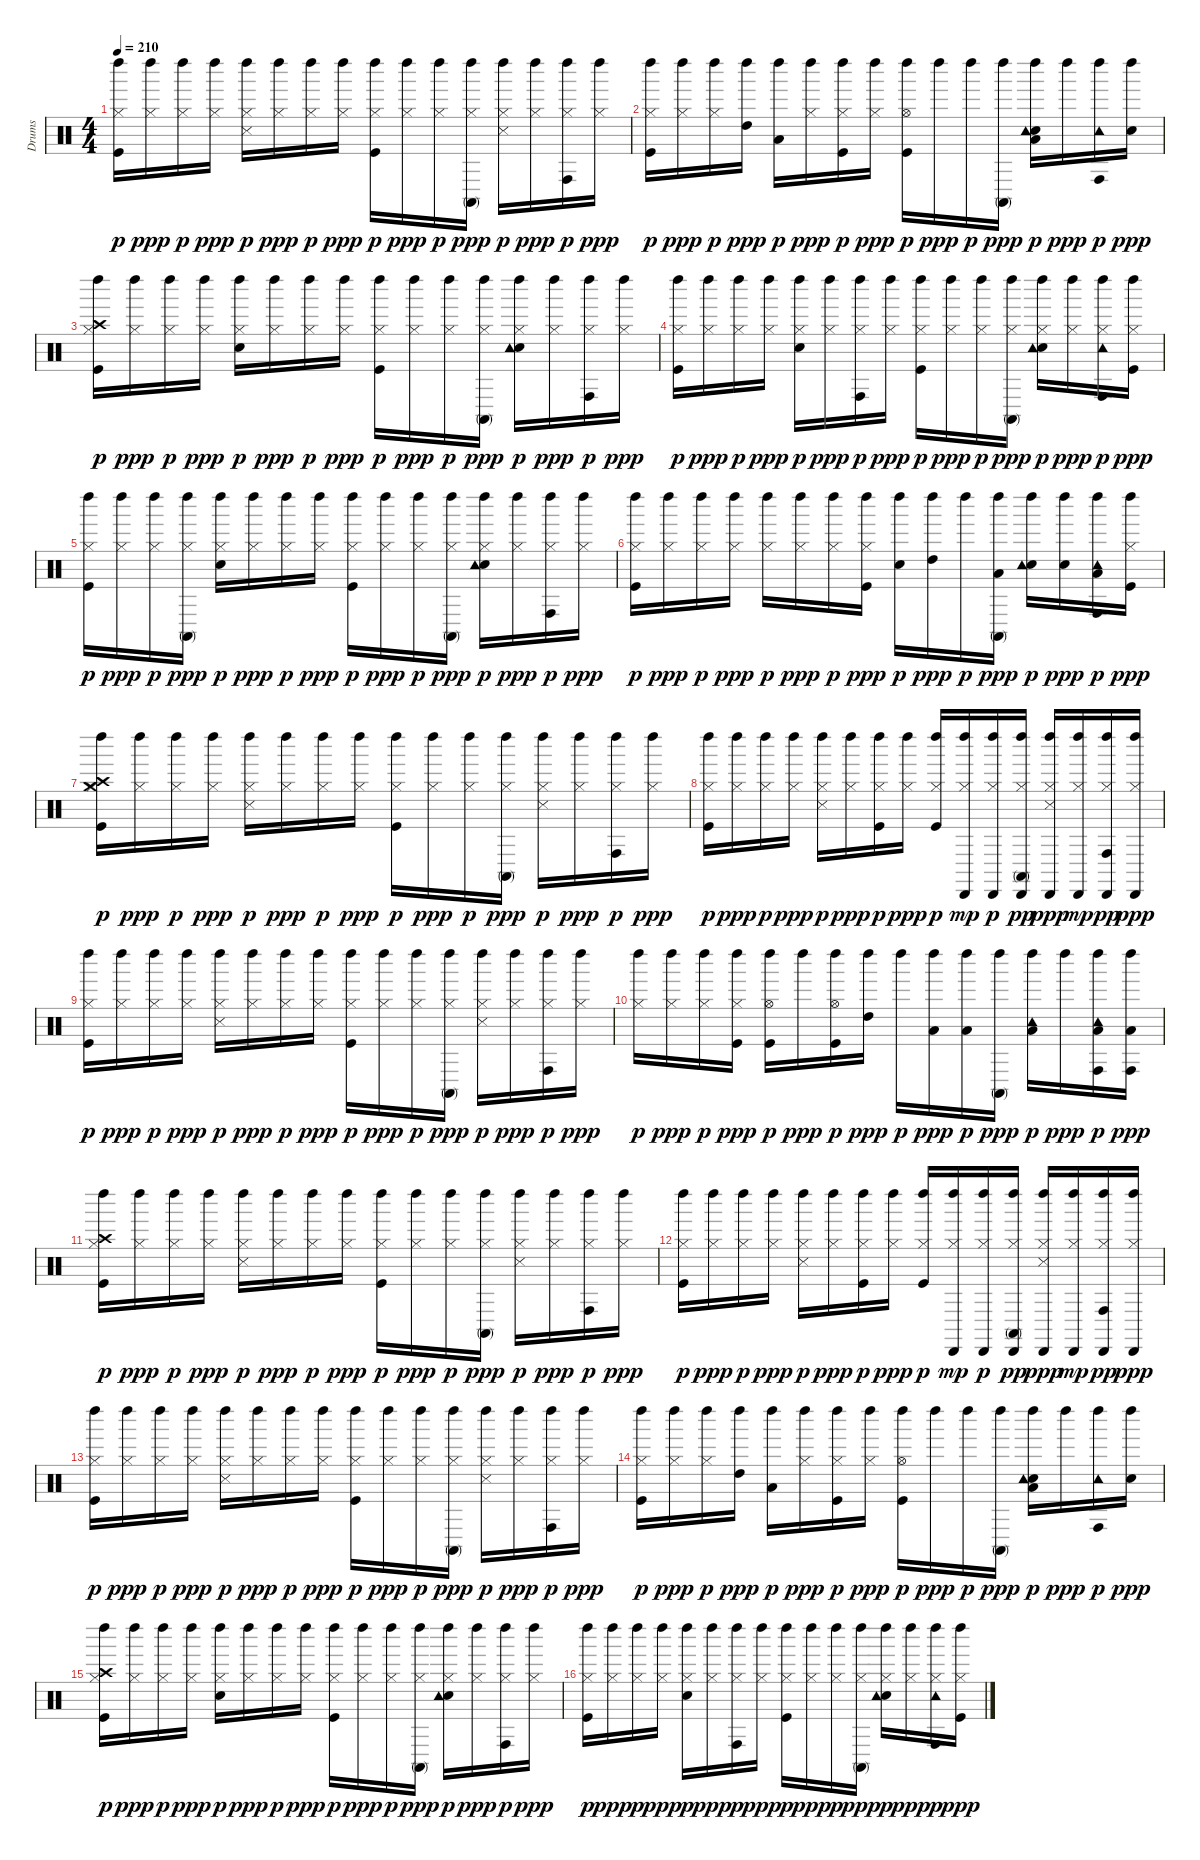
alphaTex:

\track ("Drums" "Drums") {instrument percussion}
\staff {score}
\articulation defaults
\ts (4 4)
\tempo 210
\clef neutral
\ks c
("Kick (hit)" "Hi-Hat (closed)" "Left Maraca (hit)").16{dy p} ("Hi-Hat (closed)" "Left Maraca (hit)").16{dy ppp} ("Hi-Hat (closed)" "Left Maraca (hit)").16{dy p} ("Hi-Hat (closed)" "Left Maraca (hit)").16{dy ppp} ("Hi-Hat (closed)" "Snare (side stick) 3" "Left Maraca (hit)").16{dy p} ("Hi-Hat (closed)" "Left Maraca (hit)").16{dy ppp} ("Hi-Hat (closed)" "Left Maraca (hit)").16{dy p} ("Hi-Hat (closed)" "Left Maraca (hit)").16{dy ppp} ("Kick (hit)" "Hi-Hat (closed)" "Left Maraca (hit)").16{dy p} ("Hi-Hat (closed)" "Left Maraca (hit)").16{dy ppp} ("Hi-Hat (closed)" "Left Maraca (hit)").16{dy p} ("Hi-Hat (closed)" "Conga high (mute)" "Left Maraca (hit)").16{dy ppp} ("Hi-Hat (closed)" "Snare (side stick) 3" "Left Maraca (hit)").16{dy p} ("Hi-Hat (closed)" "Left Maraca (hit)").16{dy ppp} ("Hi-Hat (closed)" "Conga high (hit)" "Left Maraca (hit)").16{dy p} ("Hi-Hat (closed)" "Left Maraca (hit)").16{dy ppp} |
("Kick (hit)" "Hi-Hat (closed)" "Left Maraca (hit)").16{dy p} ("Hi-Hat (closed)" "Left Maraca (hit)").16{dy ppp} ("Hi-Hat (closed)" "Left Maraca (hit)").16{dy p} ("High Tom (hit)" "Left Maraca (hit)").16{dy ppp} ("Low Tom (hit)" "Left Maraca (hit)").16{dy p} ("Hi-Hat (closed)" "Left Maraca (hit)").16{dy ppp} ("Kick (hit)" "Hi-Hat (closed)" "Left Maraca (hit)").16{dy p} ("Hi-Hat (closed)" "Left Maraca (hit)").16{dy ppp} ("Kick (hit)" "Hi-Hat (open)" "Left Maraca (hit)").16{dy p} "Left Maraca (hit)".16{dy ppp} "Left Maraca (hit)".16{dy p} ("Conga high (mute)" "Left Maraca (hit)").16{dy ppp} ("Snare (hit) 2" "Low Floor Tom (hit)" "Tambourine (hit)" "Left Maraca (hit)").16{dy p} "Left Maraca (hit)".16{dy ppp} ("Conga high (hit)" "Tambourine (hit)" "Left Maraca (hit)").16{dy p} ("Snare (hit) 2" "Left Maraca (hit)").16{dy ppp} |
("Kick (hit)" "Hi-Hat (closed)" "Crash high (hit)" "Left Maraca (hit)").16{dy p} ("Hi-Hat (closed)" "Left Maraca (hit)").16{dy ppp} ("Hi-Hat (closed)" "Left Maraca (hit)").16{dy p} ("Hi-Hat (closed)" "Left Maraca (hit)").16{dy ppp} ("Snare (hit) 2" "Hi-Hat (closed)" "Left Maraca (hit)").16{dy p} ("Hi-Hat (closed)" "Left Maraca (hit)").16{dy ppp} ("Hi-Hat (closed)" "Left Maraca (hit)").16{dy p} ("Hi-Hat (closed)" "Left Maraca (hit)").16{dy ppp} ("Kick (hit)" "Hi-Hat (closed)" "Left Maraca (hit)").16{dy p} ("Hi-Hat (closed)" "Left Maraca (hit)").16{dy ppp} ("Hi-Hat (closed)" "Left Maraca (hit)").16{dy p} ("Hi-Hat (closed)" "Conga high (mute)" "Left Maraca (hit)").16{dy ppp} ("Snare (hit) 2" "Hi-Hat (closed)" "Tambourine (hit)" "Left Maraca (hit)").16{dy p} ("Hi-Hat (closed)" "Left Maraca (hit)").16{dy ppp} ("Hi-Hat (closed)" "Conga high (hit)" "Left Maraca (hit)").16{dy p} ("Hi-Hat (closed)" "Left Maraca (hit)").16{dy ppp} |
("Kick (hit)" "Hi-Hat (closed)" "Left Maraca (hit)").16{dy p} ("Hi-Hat (closed)" "Left Maraca (hit)").16{dy ppp} ("Hi-Hat (closed)" "Left Maraca (hit)").16{dy p} ("Hi-Hat (closed)" "Left Maraca (hit)").16{dy ppp} ("Snare (hit) 2" "Hi-Hat (closed)" "Left Maraca (hit)").16{dy p} ("Hi-Hat (closed)" "Left Maraca (hit)").16{dy ppp} ("Hi-Hat (closed)" "Conga high (hit)" "Left Maraca (hit)").16{dy p} ("Hi-Hat (closed)" "Left Maraca (hit)").16{dy ppp} ("Kick (hit)" "Hi-Hat (closed)" "Left Maraca (hit)").16{dy p} ("Hi-Hat (closed)" "Left Maraca (hit)").16{dy ppp} ("Hi-Hat (closed)" "Left Maraca (hit)").16{dy p} ("Hi-Hat (closed)" "Conga high (mute)" "Left Maraca (hit)").16{dy ppp} ("Snare (hit) 2" "Hi-Hat (closed)" "Tambourine (hit)" "Left Maraca (hit)").16{dy p} ("Hi-Hat (closed)" "Left Maraca (hit)").16{dy ppp} ("Hi-Hat (closed)" "Conga high (hit)" "Tambourine (hit)" "Left Maraca (hit)").16{dy p} ("Kick (hit)" "Hi-Hat (closed)" "Left Maraca (hit)").16{dy ppp} |
("Kick (hit)" "Hi-Hat (closed)" "Left Maraca (hit)").16{dy p} ("Hi-Hat (closed)" "Left Maraca (hit)").16{dy ppp} ("Hi-Hat (closed)" "Left Maraca (hit)").16{dy p} ("Hi-Hat (closed)" "Conga high (mute)" "Left Maraca (hit)").16{dy ppp} ("Snare (hit) 2" "Hi-Hat (closed)" "Left Maraca (hit)").16{dy p} ("Hi-Hat (closed)" "Left Maraca (hit)").16{dy ppp} ("Hi-Hat (closed)" "Left Maraca (hit)").16{dy p} ("Hi-Hat (closed)" "Left Maraca (hit)").16{dy ppp} ("Kick (hit)" "Hi-Hat (closed)" "Left Maraca (hit)").16{dy p} ("Hi-Hat (closed)" "Left Maraca (hit)").16{dy ppp} ("Hi-Hat (closed)" "Left Maraca (hit)").16{dy p} ("Hi-Hat (closed)" "Conga high (mute)" "Left Maraca (hit)").16{dy ppp} ("Snare (hit) 2" "Hi-Hat (closed)" "Tambourine (hit)" "Left Maraca (hit)").16{dy p} ("Hi-Hat (closed)" "Left Maraca (hit)").16{dy ppp} ("Hi-Hat (closed)" "Conga high (hit)" "Left Maraca (hit)").16{dy p} ("Hi-Hat (closed)" "Left Maraca (hit)").16{dy ppp} |
("Kick (hit)" "Hi-Hat (closed)" "Left Maraca (hit)").16{dy p} ("Hi-Hat (closed)" "Left Maraca (hit)").16{dy ppp} ("Hi-Hat (closed)" "Left Maraca (hit)").16{dy p} ("Hi-Hat (closed)" "Left Maraca (hit)").16{dy ppp} ("Hi-Hat (closed)" "Left Maraca (hit)").16{dy p} ("Hi-Hat (closed)" "Left Maraca (hit)").16{dy ppp} ("Hi-Hat (closed)" "Left Maraca (hit)").16{dy p} ("Kick (hit)" "Hi-Hat (closed)" "Left Maraca (hit)").16{dy ppp} ("Snare (hit) 2" "Left Maraca (hit)").16{dy p} ("High Tom (hit)" "Left Maraca (hit)").16{dy ppp} "Left Maraca (hit)".16{dy p} ("Low Tom (hit)" "Conga high (mute)" "Left Maraca (hit)").16{dy ppp} ("Snare (hit) 2" "Tambourine (hit)" "Left Maraca (hit)").16{dy p} ("Snare (hit) 2" "Left Maraca (hit)").16{dy ppp} ("Low Floor Tom (hit)" "Conga high (hit)" "Tambourine (hit)" "Left Maraca (hit)").16{dy p} ("Kick (hit)" "Hi-Hat (closed)" "Left Maraca (hit)").16{dy ppp} |
("Crash medium (hit)" "Kick (hit)" "Hi-Hat (closed)" "Crash high (hit)" "Left Maraca (hit)").16{dy p} ("Hi-Hat (closed)" "Left Maraca (hit)").16{dy ppp} ("Hi-Hat (closed)" "Left Maraca (hit)").16{dy p} ("Hi-Hat (closed)" "Left Maraca (hit)").16{dy ppp} ("Hi-Hat (closed)" "Snare (side stick) 3" "Left Maraca (hit)").16{dy p} ("Hi-Hat (closed)" "Left Maraca (hit)").16{dy ppp} ("Hi-Hat (closed)" "Left Maraca (hit)").16{dy p} ("Hi-Hat (closed)" "Left Maraca (hit)").16{dy ppp} ("Kick (hit)" "Hi-Hat (closed)" "Left Maraca (hit)").16{dy p} ("Hi-Hat (closed)" "Left Maraca (hit)").16{dy ppp} ("Hi-Hat (closed)" "Left Maraca (hit)").16{dy p} ("Hi-Hat (closed)" "Conga high (mute)" "Left Maraca (hit)").16{dy ppp} ("Hi-Hat (closed)" "Snare (side stick) 3" "Left Maraca (hit)").16{dy p} ("Hi-Hat (closed)" "Left Maraca (hit)").16{dy ppp} ("Hi-Hat (closed)" "Conga high (hit)" "Left Maraca (hit)").16{dy p} ("Hi-Hat (closed)" "Left Maraca (hit)").16{dy ppp} |
("Kick (hit)" "Hi-Hat (closed)" "Left Maraca (hit)").16{dy p} ("Hi-Hat (closed)" "Left Maraca (hit)").16{dy ppp} ("Hi-Hat (closed)" "Left Maraca (hit)").16{dy p} ("Hi-Hat (closed)" "Left Maraca (hit)").16{dy ppp} ("Hi-Hat (closed)" "Snare (side stick) 3" "Left Maraca (hit)").16{dy p} ("Hi-Hat (closed)" "Left Maraca (hit)").16{dy ppp} ("Kick (hit)" "Hi-Hat (closed)" "Left Maraca (hit)").16{dy p} ("Hi-Hat (closed)" "Left Maraca (hit)").16{dy ppp} ("Kick (hit)" "Hi-Hat (closed)" "Left Maraca (hit)").16{dy p} ("Hi-Hat (closed)" "Left Maraca (hit)" "Cabasa (hit)").16{dy mp} ("Hi-Hat (closed)" "Left Maraca (hit)" "Cabasa (hit)").16{dy p} ("Hi-Hat (closed)" "Conga high (mute)" "Left Maraca (hit)" "Cabasa (hit)").16{dy pp} ("Hi-Hat (closed)" "Snare (side stick) 3" "Left Maraca (hit)" "Cabasa (hit)").16{dy ppp} ("Hi-Hat (closed)" "Left Maraca (hit)" "Cabasa (hit)").16{dy mp} ("Hi-Hat (closed)" "Conga high (hit)" "Left Maraca (hit)" "Cabasa (hit)").16{dy pp} ("Hi-Hat (closed)" "Left Maraca (hit)" "Cabasa (hit)").16{dy ppp} |
("Kick (hit)" "Hi-Hat (closed)" "Left Maraca (hit)").16{dy p} ("Hi-Hat (closed)" "Left Maraca (hit)").16{dy ppp} ("Hi-Hat (closed)" "Left Maraca (hit)").16{dy p} ("Hi-Hat (closed)" "Left Maraca (hit)").16{dy ppp} ("Hi-Hat (closed)" "Snare (side stick) 3" "Left Maraca (hit)").16{dy p} ("Hi-Hat (closed)" "Left Maraca (hit)").16{dy ppp} ("Hi-Hat (closed)" "Left Maraca (hit)").16{dy p} ("Hi-Hat (closed)" "Left Maraca (hit)").16{dy ppp} ("Kick (hit)" "Hi-Hat (closed)" "Left Maraca (hit)").16{dy p} ("Hi-Hat (closed)" "Left Maraca (hit)").16{dy ppp} ("Hi-Hat (closed)" "Left Maraca (hit)").16{dy p} ("Hi-Hat (closed)" "Conga high (mute)" "Left Maraca (hit)").16{dy ppp} ("Hi-Hat (closed)" "Snare (side stick) 3" "Left Maraca (hit)").16{dy p} ("Hi-Hat (closed)" "Left Maraca (hit)").16{dy ppp} ("Hi-Hat (closed)" "Conga high (hit)" "Left Maraca (hit)").16{dy p} ("Hi-Hat (closed)" "Left Maraca (hit)").16{dy ppp} |
("Hi-Hat (closed)" "Left Maraca (hit)").16{dy p} ("Hi-Hat (closed)" "Left Maraca (hit)").16{dy ppp} ("Hi-Hat (closed)" "Left Maraca (hit)").16{dy p} ("Kick (hit)" "Hi-Hat (closed)" "Left Maraca (hit)").16{dy ppp} ("Kick (hit)" "Hi-Hat (open)" "Left Maraca (hit)").16{dy p} "Left Maraca (hit)".16{dy ppp} ("Kick (hit)" "Hi-Hat (open)" "Left Maraca (hit)").16{dy p} ("High Tom (hit)" "Left Maraca (hit)").16{dy ppp} "Left Maraca (hit)".16{dy p} ("Low Tom (hit)" "Left Maraca (hit)").16{dy ppp} ("Low Tom (hit)" "Left Maraca (hit)").16{dy p} ("Conga high (mute)" "Left Maraca (hit)").16{dy ppp} ("Low Tom (hit)" "Tambourine (hit)" "Left Maraca (hit)").16{dy p} "Left Maraca (hit)".16{dy ppp} ("Low Floor Tom (hit)" "Conga high (hit)" "Tambourine (hit)" "Left Maraca (hit)").16{dy p} ("Low Floor Tom (hit)" "Conga high (hit)" "Left Maraca (hit)").16{dy ppp} |
("Kick (hit)" "Hi-Hat (closed)" "Crash high (hit)" "Left Maraca (hit)").16{dy p} ("Hi-Hat (closed)" "Left Maraca (hit)").16{dy ppp} ("Hi-Hat (closed)" "Left Maraca (hit)").16{dy p} ("Hi-Hat (closed)" "Left Maraca (hit)").16{dy ppp} ("Hi-Hat (closed)" "Snare (side stick) 3" "Left Maraca (hit)").16{dy p} ("Hi-Hat (closed)" "Left Maraca (hit)").16{dy ppp} ("Hi-Hat (closed)" "Left Maraca (hit)").16{dy p} ("Hi-Hat (closed)" "Left Maraca (hit)").16{dy ppp} ("Kick (hit)" "Hi-Hat (closed)" "Left Maraca (hit)").16{dy p} ("Hi-Hat (closed)" "Left Maraca (hit)").16{dy ppp} ("Hi-Hat (closed)" "Left Maraca (hit)").16{dy p} ("Hi-Hat (closed)" "Conga high (mute)" "Left Maraca (hit)").16{dy ppp} ("Hi-Hat (closed)" "Snare (side stick) 3" "Left Maraca (hit)").16{dy p} ("Hi-Hat (closed)" "Left Maraca (hit)").16{dy ppp} ("Hi-Hat (closed)" "Conga high (hit)" "Left Maraca (hit)").16{dy p} ("Hi-Hat (closed)" "Left Maraca (hit)").16{dy ppp} |
("Kick (hit)" "Hi-Hat (closed)" "Left Maraca (hit)").16{dy p} ("Hi-Hat (closed)" "Left Maraca (hit)").16{dy ppp} ("Hi-Hat (closed)" "Left Maraca (hit)").16{dy p} ("Hi-Hat (closed)" "Left Maraca (hit)").16{dy ppp} ("Hi-Hat (closed)" "Snare (side stick) 3" "Left Maraca (hit)").16{dy p} ("Hi-Hat (closed)" "Left Maraca (hit)").16{dy ppp} ("Kick (hit)" "Hi-Hat (closed)" "Left Maraca (hit)").16{dy p} ("Hi-Hat (closed)" "Left Maraca (hit)").16{dy ppp} ("Kick (hit)" "Hi-Hat (closed)" "Left Maraca (hit)").16{dy p} ("Hi-Hat (closed)" "Left Maraca (hit)" "Cabasa (hit)").16{dy mp} ("Hi-Hat (closed)" "Left Maraca (hit)" "Cabasa (hit)").16{dy p} ("Hi-Hat (closed)" "Conga high (mute)" "Left Maraca (hit)" "Cabasa (hit)").16{dy pp} ("Hi-Hat (closed)" "Snare (side stick) 3" "Left Maraca (hit)" "Cabasa (hit)").16{dy ppp} ("Hi-Hat (closed)" "Left Maraca (hit)" "Cabasa (hit)").16{dy mp} ("Hi-Hat (closed)" "Conga high (hit)" "Left Maraca (hit)" "Cabasa (hit)").16{dy pp} ("Hi-Hat (closed)" "Left Maraca (hit)" "Cabasa (hit)").16{dy ppp} |
("Kick (hit)" "Hi-Hat (closed)" "Left Maraca (hit)").16{dy p} ("Hi-Hat (closed)" "Left Maraca (hit)").16{dy ppp} ("Hi-Hat (closed)" "Left Maraca (hit)").16{dy p} ("Hi-Hat (closed)" "Left Maraca (hit)").16{dy ppp} ("Hi-Hat (closed)" "Snare (side stick) 3" "Left Maraca (hit)").16{dy p} ("Hi-Hat (closed)" "Left Maraca (hit)").16{dy ppp} ("Hi-Hat (closed)" "Left Maraca (hit)").16{dy p} ("Hi-Hat (closed)" "Left Maraca (hit)").16{dy ppp} ("Kick (hit)" "Hi-Hat (closed)" "Left Maraca (hit)").16{dy p} ("Hi-Hat (closed)" "Left Maraca (hit)").16{dy ppp} ("Hi-Hat (closed)" "Left Maraca (hit)").16{dy p} ("Hi-Hat (closed)" "Conga high (mute)" "Left Maraca (hit)").16{dy ppp} ("Hi-Hat (closed)" "Snare (side stick) 3" "Left Maraca (hit)").16{dy p} ("Hi-Hat (closed)" "Left Maraca (hit)").16{dy ppp} ("Hi-Hat (closed)" "Conga high (hit)" "Left Maraca (hit)").16{dy p} ("Hi-Hat (closed)" "Left Maraca (hit)").16{dy ppp} |
("Kick (hit)" "Hi-Hat (closed)" "Left Maraca (hit)").16{dy p} ("Hi-Hat (closed)" "Left Maraca (hit)").16{dy ppp} ("Hi-Hat (closed)" "Left Maraca (hit)").16{dy p} ("High Tom (hit)" "Left Maraca (hit)").16{dy ppp} ("Low Tom (hit)" "Left Maraca (hit)").16{dy p} ("Hi-Hat (closed)" "Left Maraca (hit)").16{dy ppp} ("Kick (hit)" "Hi-Hat (closed)" "Left Maraca (hit)").16{dy p} ("Hi-Hat (closed)" "Left Maraca (hit)").16{dy ppp} ("Kick (hit)" "Hi-Hat (open)" "Left Maraca (hit)").16{dy p} "Left Maraca (hit)".16{dy ppp} "Left Maraca (hit)".16{dy p} ("Conga high (mute)" "Left Maraca (hit)").16{dy ppp} ("Snare (hit) 2" "Low Floor Tom (hit)" "Tambourine (hit)" "Left Maraca (hit)").16{dy p} "Left Maraca (hit)".16{dy ppp} ("Conga high (hit)" "Tambourine (hit)" "Left Maraca (hit)").16{dy p} ("Snare (hit) 2" "Left Maraca (hit)").16{dy ppp} |
("Kick (hit)" "Hi-Hat (closed)" "Crash high (hit)" "Left Maraca (hit)").16{dy p} ("Hi-Hat (closed)" "Left Maraca (hit)").16{dy ppp} ("Hi-Hat (closed)" "Left Maraca (hit)").16{dy p} ("Hi-Hat (closed)" "Left Maraca (hit)").16{dy ppp} ("Snare (hit) 2" "Hi-Hat (closed)" "Left Maraca (hit)").16{dy p} ("Hi-Hat (closed)" "Left Maraca (hit)").16{dy ppp} ("Hi-Hat (closed)" "Left Maraca (hit)").16{dy p} ("Hi-Hat (closed)" "Left Maraca (hit)").16{dy ppp} ("Kick (hit)" "Hi-Hat (closed)" "Left Maraca (hit)").16{dy p} ("Hi-Hat (closed)" "Left Maraca (hit)").16{dy ppp} ("Hi-Hat (closed)" "Left Maraca (hit)").16{dy p} ("Hi-Hat (closed)" "Conga high (mute)" "Left Maraca (hit)").16{dy ppp} ("Snare (hit) 2" "Hi-Hat (closed)" "Tambourine (hit)" "Left Maraca (hit)").16{dy p} ("Hi-Hat (closed)" "Left Maraca (hit)").16{dy ppp} ("Hi-Hat (closed)" "Conga high (hit)" "Left Maraca (hit)").16{dy p} ("Hi-Hat (closed)" "Left Maraca (hit)").16{dy ppp} |
("Kick (hit)" "Hi-Hat (closed)" "Left Maraca (hit)").16{dy p} ("Hi-Hat (closed)" "Left Maraca (hit)").16{dy ppp} ("Hi-Hat (closed)" "Left Maraca (hit)").16{dy p} ("Hi-Hat (closed)" "Left Maraca (hit)").16{dy ppp} ("Snare (hit) 2" "Hi-Hat (closed)" "Left Maraca (hit)").16{dy p} ("Hi-Hat (closed)" "Left Maraca (hit)").16{dy ppp} ("Hi-Hat (closed)" "Conga high (hit)" "Left Maraca (hit)").16{dy p} ("Hi-Hat (closed)" "Left Maraca (hit)").16{dy ppp} ("Kick (hit)" "Hi-Hat (closed)" "Left Maraca (hit)").16{dy p} ("Hi-Hat (closed)" "Left Maraca (hit)").16{dy ppp} ("Hi-Hat (closed)" "Left Maraca (hit)").16{dy p} ("Hi-Hat (closed)" "Conga high (mute)" "Left Maraca (hit)").16{dy ppp} ("Snare (hit) 2" "Hi-Hat (closed)" "Tambourine (hit)" "Left Maraca (hit)").16{dy p} ("Hi-Hat (closed)" "Left Maraca (hit)").16{dy ppp} ("Hi-Hat (closed)" "Conga high (hit)" "Tambourine (hit)" "Left Maraca (hit)").16{dy p} ("Kick (hit)" "Hi-Hat (closed)" "Left Maraca (hit)").16{dy ppp}
